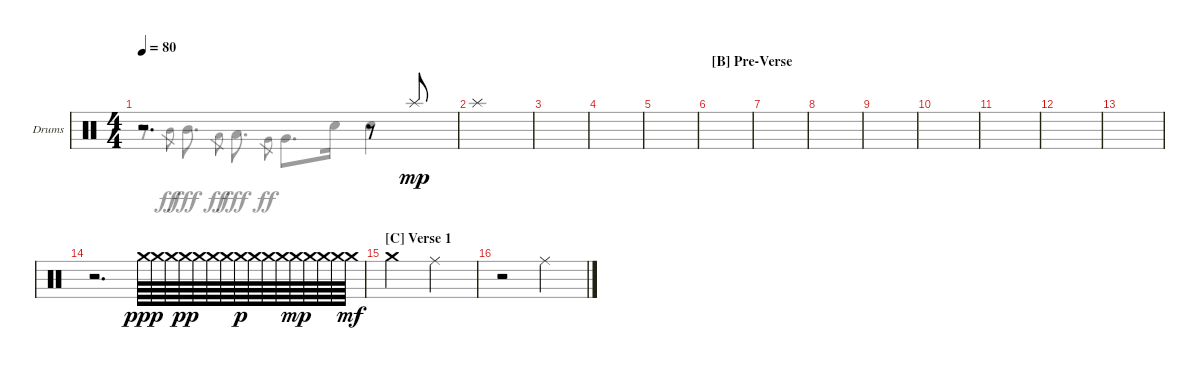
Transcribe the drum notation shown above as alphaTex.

\defaultSystemsLayout 4
\bracketExtendMode groupsimilarinstruments
\firstSystemTrackNameOrientation horizontal
\otherSystemsTrackNameOrientation horizontal
\track ("Drumkit" "Drums") {instrument percussion}
\staff {score}
\articulation defaults
\voice
\ts (4 4)
\tempo 80
\clef neutral
\scale
0.333333
\ks c
r.2{d dy f} r.8 "Splash (hit)".8{dy mp} |
\scale
0.333333 "Splash (hit)".1 |
|
|
|
\section ("B" "Pre-Verse")
|
|
|
|
|
|
|
|
r.2{d} "Crash medium (hit)".64{dy ppp} "Crash medium (hit)".64 "Crash medium (hit)".64 "Crash medium (hit)".64{dy pp} "Crash medium (hit)".64 "Crash medium (hit)".64 "Crash medium (hit)".64 "Crash medium (hit)".64{dy p} "Crash medium (hit)".64 "Crash medium (hit)".64 "Crash medium (hit)".64 "Crash medium (hit)".64{dy mp} "Crash medium (hit)".64 "Crash medium (hit)".64 "Crash medium (hit)".64 "Crash medium (hit)".64{dy mf} |
\section ("C" "Verse 1")
"Crash medium (hit)".2 "Ride (middle)".2 |
r.2 "Ride (middle)".2
\voice
\clef neutral
\ottava regular
\simile none
\scale
0.333333
\ks c
r.8{dy fff} "Mid Tom (hit)".8{gr dy ff} "Mid Tom (hit)".8{d dy fff} "Low Tom (hit)".8{gr dy ff} "Low Tom (hit)".8{d dy fff} "Very Low Tom (hit)".8{gr dy ff} "Very Low Tom (hit)".8{d} "Snare (hit) 2".16 "Snare (hit) 2".4 |
\scale
0.333333 |
|
|
|
|
|
|
|
|
|
|
|
|
|
